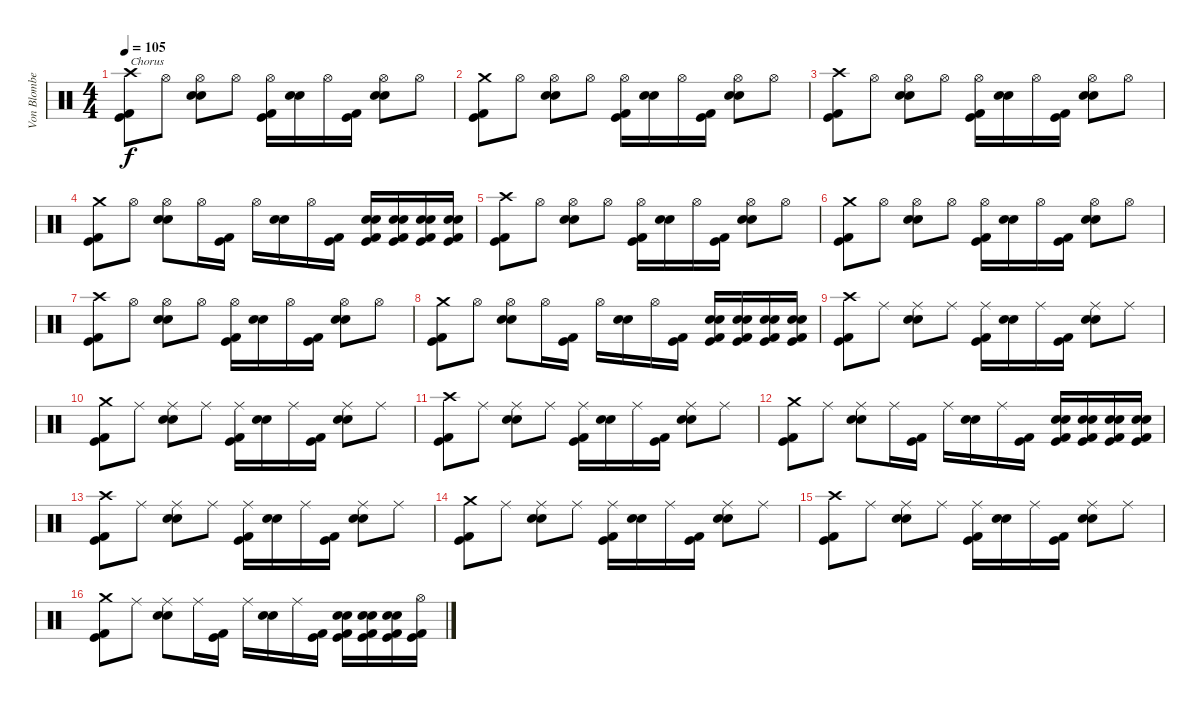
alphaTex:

\track ("Von Blomberg" "Von Blombe") {instrument percussion}
\staff {score}
\articulation defaults
\ts (4 4)
\tempo 105
\clef neutral
\ks c
("Crash high (hit)" "Kick (hit)" "Kick (hit) 2").8{txt "Chorus" dy f} "Hi-Hat (open)".8 ("Hi-Hat (open)" "Electric Snare (hit)" "Snare (hit) 2").8 "Hi-Hat (open)".8 ("Hi-Hat (open)" "Kick (hit)" "Kick (hit) 2").16 ("Electric Snare (hit)" "Snare (hit) 2").16 "Hi-Hat (open)".16 ("Kick (hit) 2" "Kick (hit)").16 ("Hi-Hat (open)" "Snare (hit) 2" "Electric Snare (hit)").8 "Hi-Hat (open)".8 |
("Crash medium (hit)" "Kick (hit)" "Kick (hit) 2").8 "Hi-Hat (open)".8 ("Hi-Hat (open)" "Electric Snare (hit)" "Snare (hit) 2").8 "Hi-Hat (open)".8 ("Hi-Hat (open)" "Kick (hit)" "Kick (hit) 2").16 ("Electric Snare (hit)" "Snare (hit) 2").16 "Hi-Hat (open)".16 ("Kick (hit) 2" "Kick (hit)").16 ("Hi-Hat (open)" "Snare (hit) 2" "Electric Snare (hit)").8 "Hi-Hat (open)".8 |
("Crash high (hit)" "Kick (hit)" "Kick (hit) 2").8 "Hi-Hat (open)".8 ("Hi-Hat (open)" "Electric Snare (hit)" "Snare (hit) 2").8 "Hi-Hat (open)".8 ("Hi-Hat (open)" "Kick (hit)" "Kick (hit) 2").16 ("Electric Snare (hit)" "Snare (hit) 2").16 "Hi-Hat (open)".16 ("Kick (hit) 2" "Kick (hit)").16 ("Hi-Hat (open)" "Snare (hit) 2" "Electric Snare (hit)").8 "Hi-Hat (open)".8 |
("Crash medium (hit)" "Kick (hit)" "Kick (hit) 2").8 "Hi-Hat (open)".8 ("Hi-Hat (open)" "Electric Snare (hit)" "Snare (hit) 2").8 "Hi-Hat (open)".16 ("Kick (hit)" "Kick (hit) 2").16 "Hi-Hat (open)".16 ("Snare (hit) 2" "Electric Snare (hit)").16 "Hi-Hat (open)".16 ("Kick (hit)" "Kick (hit) 2").16 ("Electric Snare (hit)" "Snare (hit) 2" "Kick (hit)" "Kick (hit) 2").16 ("Electric Snare (hit)" "Snare (hit) 2" "Kick (hit)" "Kick (hit) 2").16 ("Electric Snare (hit)" "Snare (hit) 2" "Kick (hit)" "Kick (hit) 2").16 ("Electric Snare (hit)" "Snare (hit) 2" "Kick (hit)" "Kick (hit) 2").16 |
("Crash high (hit)" "Kick (hit)" "Kick (hit) 2").8 "Hi-Hat (open)".8 ("Hi-Hat (open)" "Electric Snare (hit)" "Snare (hit) 2").8 "Hi-Hat (open)".8 ("Hi-Hat (open)" "Kick (hit)" "Kick (hit) 2").16 ("Electric Snare (hit)" "Snare (hit) 2").16 "Hi-Hat (open)".16 ("Kick (hit) 2" "Kick (hit)").16 ("Hi-Hat (open)" "Snare (hit) 2" "Electric Snare (hit)").8 "Hi-Hat (open)".8 |
("Crash medium (hit)" "Kick (hit)" "Kick (hit) 2").8 "Hi-Hat (open)".8 ("Hi-Hat (open)" "Electric Snare (hit)" "Snare (hit) 2").8 "Hi-Hat (open)".8 ("Hi-Hat (open)" "Kick (hit)" "Kick (hit) 2").16 ("Electric Snare (hit)" "Snare (hit) 2").16 "Hi-Hat (open)".16 ("Kick (hit) 2" "Kick (hit)").16 ("Hi-Hat (open)" "Snare (hit) 2" "Electric Snare (hit)").8 "Hi-Hat (open)".8 |
("Crash high (hit)" "Kick (hit)" "Kick (hit) 2").8 "Hi-Hat (open)".8 ("Hi-Hat (open)" "Electric Snare (hit)" "Snare (hit) 2").8 "Hi-Hat (open)".8 ("Hi-Hat (open)" "Kick (hit)" "Kick (hit) 2").16 ("Electric Snare (hit)" "Snare (hit) 2").16 "Hi-Hat (open)".16 ("Kick (hit) 2" "Kick (hit)").16 ("Hi-Hat (open)" "Snare (hit) 2" "Electric Snare (hit)").8 "Hi-Hat (open)".8 |
("Crash medium (hit)" "Kick (hit)" "Kick (hit) 2").8 "Hi-Hat (open)".8 ("Hi-Hat (open)" "Electric Snare (hit)" "Snare (hit) 2").8 "Hi-Hat (open)".16 ("Kick (hit)" "Kick (hit) 2").16 "Hi-Hat (open)".16 ("Snare (hit) 2" "Electric Snare (hit)").16 "Hi-Hat (open)".16 ("Kick (hit)" "Kick (hit) 2").16 ("Electric Snare (hit)" "Snare (hit) 2" "Kick (hit)" "Kick (hit) 2").16 ("Electric Snare (hit)" "Snare (hit) 2" "Kick (hit)" "Kick (hit) 2").16 ("Electric Snare (hit)" "Snare (hit) 2" "Kick (hit)" "Kick (hit) 2").16 ("Electric Snare (hit)" "Snare (hit) 2" "Kick (hit)" "Kick (hit) 2").16 |
("Crash high (hit)" "Kick (hit)" "Kick (hit) 2").8 "Ride (middle)".8 ("Ride (middle)" "Electric Snare (hit)" "Snare (hit) 2").8 "Ride (middle)".8 ("Ride (middle)" "Kick (hit)" "Kick (hit) 2").16 ("Electric Snare (hit)" "Snare (hit) 2").16 "Ride (middle)".16 ("Kick (hit) 2" "Kick (hit)").16 ("Ride (middle)" "Snare (hit) 2" "Electric Snare (hit)").8 "Ride (middle)".8 |
("Crash medium (hit)" "Kick (hit)" "Kick (hit) 2").8 "Ride (middle)".8 ("Ride (middle)" "Electric Snare (hit)" "Snare (hit) 2").8 "Ride (middle)".8 ("Ride (middle)" "Kick (hit)" "Kick (hit) 2").16 ("Electric Snare (hit)" "Snare (hit) 2").16 "Ride (middle)".16 ("Kick (hit) 2" "Kick (hit)").16 ("Ride (middle)" "Snare (hit) 2" "Electric Snare (hit)").8 "Ride (middle)".8 |
("Crash high (hit)" "Kick (hit)" "Kick (hit) 2").8 "Ride (middle)".8 ("Ride (middle)" "Electric Snare (hit)" "Snare (hit) 2").8 "Ride (middle)".8 ("Ride (middle)" "Kick (hit)" "Kick (hit) 2").16 ("Electric Snare (hit)" "Snare (hit) 2").16 "Ride (middle)".16 ("Kick (hit) 2" "Kick (hit)").16 ("Ride (middle)" "Snare (hit) 2" "Electric Snare (hit)").8 "Ride (middle)".8 |
("Crash medium (hit)" "Kick (hit)" "Kick (hit) 2").8 "Ride (middle)".8 ("Ride (middle)" "Electric Snare (hit)" "Snare (hit) 2").8 "Ride (middle)".16 ("Kick (hit)" "Kick (hit) 2").16 "Ride (middle)".16 ("Snare (hit) 2" "Electric Snare (hit)").16 "Ride (middle)".16 ("Kick (hit)" "Kick (hit) 2").16 ("Electric Snare (hit)" "Snare (hit) 2" "Kick (hit)" "Kick (hit) 2").16 ("Electric Snare (hit)" "Snare (hit) 2" "Kick (hit)" "Kick (hit) 2").16 ("Electric Snare (hit)" "Snare (hit) 2" "Kick (hit)" "Kick (hit) 2").16 ("Electric Snare (hit)" "Snare (hit) 2" "Kick (hit)" "Kick (hit) 2").16 |
("Crash high (hit)" "Kick (hit)" "Kick (hit) 2").8 "Ride (middle)".8 ("Ride (middle)" "Electric Snare (hit)" "Snare (hit) 2").8 "Ride (middle)".8 ("Ride (middle)" "Kick (hit)" "Kick (hit) 2").16 ("Electric Snare (hit)" "Snare (hit) 2").16 "Ride (middle)".16 ("Kick (hit) 2" "Kick (hit)").16 ("Ride (middle)" "Snare (hit) 2" "Electric Snare (hit)").8 "Ride (middle)".8 |
("Crash medium (hit)" "Kick (hit)" "Kick (hit) 2").8 "Ride (middle)".8 ("Ride (middle)" "Electric Snare (hit)" "Snare (hit) 2").8 "Ride (middle)".8 ("Ride (middle)" "Kick (hit)" "Kick (hit) 2").16 ("Electric Snare (hit)" "Snare (hit) 2").16 "Ride (middle)".16 ("Kick (hit) 2" "Kick (hit)").16 ("Ride (middle)" "Snare (hit) 2" "Electric Snare (hit)").8 "Ride (middle)".8 |
("Crash high (hit)" "Kick (hit)" "Kick (hit) 2").8 "Ride (middle)".8 ("Ride (middle)" "Electric Snare (hit)" "Snare (hit) 2").8 "Ride (middle)".8 ("Ride (middle)" "Kick (hit)" "Kick (hit) 2").16 ("Electric Snare (hit)" "Snare (hit) 2").16 "Ride (middle)".16 ("Kick (hit) 2" "Kick (hit)").16 ("Ride (middle)" "Snare (hit) 2" "Electric Snare (hit)").8 "Ride (middle)".8 |
("Crash medium (hit)" "Kick (hit)" "Kick (hit) 2").8 "Ride (middle)".8 ("Ride (middle)" "Electric Snare (hit)" "Snare (hit) 2").8 "Ride (middle)".16 ("Kick (hit)" "Kick (hit) 2").16 "Ride (middle)".16 ("Snare (hit) 2" "Electric Snare (hit)").16 "Ride (middle)".16 ("Kick (hit)" "Kick (hit) 2").16 ("Electric Snare (hit)" "Snare (hit) 2" "Kick (hit)" "Kick (hit) 2").16 ("Electric Snare (hit)" "Snare (hit) 2" "Kick (hit)" "Kick (hit) 2").16 ("Electric Snare (hit)" "Snare (hit) 2" "Kick (hit)" "Kick (hit) 2").16 ("Hi-Hat (open)" "Kick (hit)" "Kick (hit) 2").16
